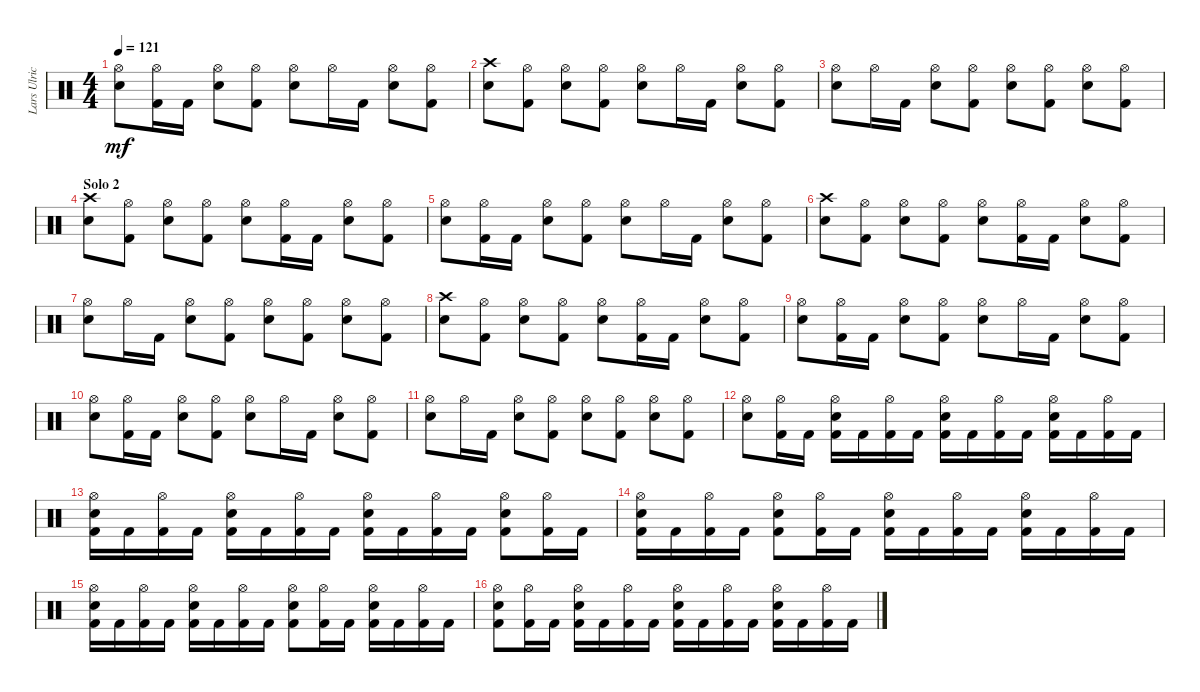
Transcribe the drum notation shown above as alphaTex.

\track ("Lars Ulrich" "Lars Ulric") {instrument percussion}
\staff {score}
\articulation defaults
\ts (4 4)
\tempo 121
\clef neutral
\ks c
("Hi-Hat (open)" "Snare (hit) 2").8{dy mf} ("Hi-Hat (open)" "Kick (hit) 2").16 "Kick (hit) 2".16 ("Hi-Hat (open)" "Snare (hit) 2").8 ("Hi-Hat (open)" "Kick (hit) 2").8 ("Hi-Hat (open)" "Snare (hit) 2").8 "Hi-Hat (open)".16 "Kick (hit) 2".16 ("Hi-Hat (open)" "Snare (hit) 2").8 ("Hi-Hat (open)" "Kick (hit) 2").8 |
("Crash high (hit)" "Snare (hit) 2").8 ("Hi-Hat (open)" "Kick (hit) 2").8 ("Hi-Hat (open)" "Snare (hit) 2").8 ("Hi-Hat (open)" "Kick (hit) 2").8 ("Hi-Hat (open)" "Snare (hit) 2").8 "Hi-Hat (open)".16 "Kick (hit) 2".16 ("Hi-Hat (open)" "Snare (hit) 2").8 ("Hi-Hat (open)" "Kick (hit) 2").8 |
("Hi-Hat (open)" "Snare (hit) 2").8 "Hi-Hat (open)".16 "Kick (hit) 2".16 ("Hi-Hat (open)" "Snare (hit) 2").8 ("Hi-Hat (open)" "Kick (hit) 2").8 ("Hi-Hat (open)" "Snare (hit) 2").8 ("Hi-Hat (open)" "Kick (hit) 2").8 ("Hi-Hat (open)" "Snare (hit) 2").8 ("Hi-Hat (open)" "Kick (hit) 2").8 |
\section ("" "Solo 2")
("Crash high (hit)" "Snare (hit) 2").8 ("Hi-Hat (open)" "Kick (hit) 2").8 ("Hi-Hat (open)" "Snare (hit) 2").8 ("Hi-Hat (open)" "Kick (hit) 2").8 ("Hi-Hat (open)" "Snare (hit) 2").8 ("Hi-Hat (open)" "Kick (hit) 2").16 "Kick (hit) 2".16 ("Hi-Hat (open)" "Snare (hit) 2").8 ("Hi-Hat (open)" "Kick (hit) 2").8 |
("Hi-Hat (open)" "Snare (hit) 2").8 ("Hi-Hat (open)" "Kick (hit) 2").16 "Kick (hit) 2".16 ("Hi-Hat (open)" "Snare (hit) 2").8 ("Hi-Hat (open)" "Kick (hit) 2").8 ("Hi-Hat (open)" "Snare (hit) 2").8 "Hi-Hat (open)".16 "Kick (hit) 2".16 ("Hi-Hat (open)" "Snare (hit) 2").8 ("Hi-Hat (open)" "Kick (hit) 2").8 |
("Crash high (hit)" "Snare (hit) 2").8 ("Hi-Hat (open)" "Kick (hit) 2").8 ("Hi-Hat (open)" "Snare (hit) 2").8 ("Hi-Hat (open)" "Kick (hit) 2").8 ("Hi-Hat (open)" "Snare (hit) 2").8 ("Hi-Hat (open)" "Kick (hit) 2").16 "Kick (hit) 2".16 ("Hi-Hat (open)" "Snare (hit) 2").8 ("Hi-Hat (open)" "Kick (hit) 2").8 |
("Hi-Hat (open)" "Snare (hit) 2").8 "Hi-Hat (open)".16 "Kick (hit) 2".16 ("Hi-Hat (open)" "Snare (hit) 2").8 ("Hi-Hat (open)" "Kick (hit) 2").8 ("Hi-Hat (open)" "Snare (hit) 2").8 ("Hi-Hat (open)" "Kick (hit) 2").8 ("Hi-Hat (open)" "Snare (hit) 2").8 ("Hi-Hat (open)" "Kick (hit) 2").8 |
("Crash high (hit)" "Snare (hit) 2").8 ("Hi-Hat (open)" "Kick (hit) 2").8 ("Hi-Hat (open)" "Snare (hit) 2").8 ("Hi-Hat (open)" "Kick (hit) 2").8 ("Hi-Hat (open)" "Snare (hit) 2").8 ("Hi-Hat (open)" "Kick (hit) 2").16 "Kick (hit) 2".16 ("Hi-Hat (open)" "Snare (hit) 2").8 ("Hi-Hat (open)" "Kick (hit) 2").8 |
("Hi-Hat (open)" "Snare (hit) 2").8 ("Hi-Hat (open)" "Kick (hit) 2").16 "Kick (hit) 2".16 ("Hi-Hat (open)" "Snare (hit) 2").8 ("Hi-Hat (open)" "Kick (hit) 2").8 ("Hi-Hat (open)" "Snare (hit) 2").8 "Hi-Hat (open)".16 "Kick (hit) 2".16 ("Hi-Hat (open)" "Snare (hit) 2").8 ("Hi-Hat (open)" "Kick (hit) 2").8 |
("Hi-Hat (open)" "Snare (hit) 2").8 ("Hi-Hat (open)" "Kick (hit) 2").16 "Kick (hit) 2".16 ("Hi-Hat (open)" "Snare (hit) 2").8 ("Hi-Hat (open)" "Kick (hit) 2").8 ("Hi-Hat (open)" "Snare (hit) 2").8 "Hi-Hat (open)".16 "Kick (hit) 2".16 ("Hi-Hat (open)" "Snare (hit) 2").8 ("Hi-Hat (open)" "Kick (hit) 2").8 |
("Hi-Hat (open)" "Snare (hit) 2").8 "Hi-Hat (open)".16 "Kick (hit) 2".16 ("Hi-Hat (open)" "Snare (hit) 2").8 ("Hi-Hat (open)" "Kick (hit) 2").8 ("Hi-Hat (open)" "Snare (hit) 2").8 ("Hi-Hat (open)" "Kick (hit) 2").8 ("Hi-Hat (open)" "Snare (hit) 2").8 ("Hi-Hat (open)" "Kick (hit) 2").8 |
("Hi-Hat (open)" "Snare (hit) 2").8 ("Hi-Hat (open)" "Kick (hit) 2").16 "Kick (hit) 2".16 ("Kick (hit) 2" "Snare (hit) 2" "Hi-Hat (open)").16 "Kick (hit) 2".16 ("Kick (hit) 2" "Hi-Hat (open)").16 "Kick (hit) 2".16 ("Kick (hit) 2" "Hi-Hat (open)" "Snare (hit) 2").16 "Kick (hit) 2".16 ("Kick (hit) 2" "Hi-Hat (open)").16 "Kick (hit) 2".16 ("Kick (hit) 2" "Hi-Hat (open)" "Snare (hit) 2").16 "Kick (hit) 2".16 ("Hi-Hat (open)" "Kick (hit) 2").16 "Kick (hit) 2".16 |
("Kick (hit) 2" "Snare (hit) 2" "Hi-Hat (open)").16 "Kick (hit) 2".16 ("Kick (hit) 2" "Hi-Hat (open)").16 "Kick (hit) 2".16 ("Kick (hit) 2" "Hi-Hat (open)" "Snare (hit) 2").16 "Kick (hit) 2".16 ("Kick (hit) 2" "Hi-Hat (open)").16 "Kick (hit) 2".16 ("Kick (hit) 2" "Hi-Hat (open)" "Snare (hit) 2").16 "Kick (hit) 2".16 ("Hi-Hat (open)" "Kick (hit) 2").16 "Kick (hit) 2".16 ("Kick (hit) 2" "Hi-Hat (open)" "Snare (hit) 2").8 ("Hi-Hat (open)" "Kick (hit) 2").16 "Kick (hit) 2".16 |
("Kick (hit) 2" "Snare (hit) 2" "Hi-Hat (open)").16 "Kick (hit) 2".16 ("Kick (hit) 2" "Hi-Hat (open)").16 "Kick (hit) 2".16 ("Kick (hit) 2" "Hi-Hat (open)" "Snare (hit) 2").8 ("Kick (hit) 2" "Hi-Hat (open)").16 "Kick (hit) 2".16 ("Kick (hit) 2" "Hi-Hat (open)" "Snare (hit) 2").16 "Kick (hit) 2".16 ("Hi-Hat (open)" "Kick (hit) 2").16 "Kick (hit) 2".16 ("Kick (hit) 2" "Hi-Hat (open)" "Snare (hit) 2").16 "Kick (hit) 2".16 ("Hi-Hat (open)" "Kick (hit) 2").16 "Kick (hit) 2".16 |
("Kick (hit) 2" "Snare (hit) 2" "Hi-Hat (open)").16 "Kick (hit) 2".16 ("Kick (hit) 2" "Hi-Hat (open)").16 "Kick (hit) 2".16 ("Kick (hit) 2" "Hi-Hat (open)" "Snare (hit) 2").16 "Kick (hit) 2".16 ("Kick (hit) 2" "Hi-Hat (open)").16 "Kick (hit) 2".16 ("Kick (hit) 2" "Hi-Hat (open)" "Snare (hit) 2").8 ("Hi-Hat (open)" "Kick (hit) 2").16 "Kick (hit) 2".16 ("Kick (hit) 2" "Hi-Hat (open)" "Snare (hit) 2").16 "Kick (hit) 2".16 ("Hi-Hat (open)" "Kick (hit) 2").16 "Kick (hit) 2".16 |
("Kick (hit) 2" "Snare (hit) 2" "Hi-Hat (open)").8 ("Kick (hit) 2" "Hi-Hat (open)").16 "Kick (hit) 2".16 ("Kick (hit) 2" "Hi-Hat (open)" "Snare (hit) 2").16 "Kick (hit) 2".16 ("Kick (hit) 2" "Hi-Hat (open)").16 "Kick (hit) 2".16 ("Kick (hit) 2" "Hi-Hat (open)" "Snare (hit) 2").16 "Kick (hit) 2".16 ("Hi-Hat (open)" "Kick (hit) 2").16 "Kick (hit) 2".16 ("Kick (hit) 2" "Hi-Hat (open)" "Snare (hit) 2").16 "Kick (hit) 2".16 ("Hi-Hat (open)" "Kick (hit) 2").16 "Kick (hit) 2".16
